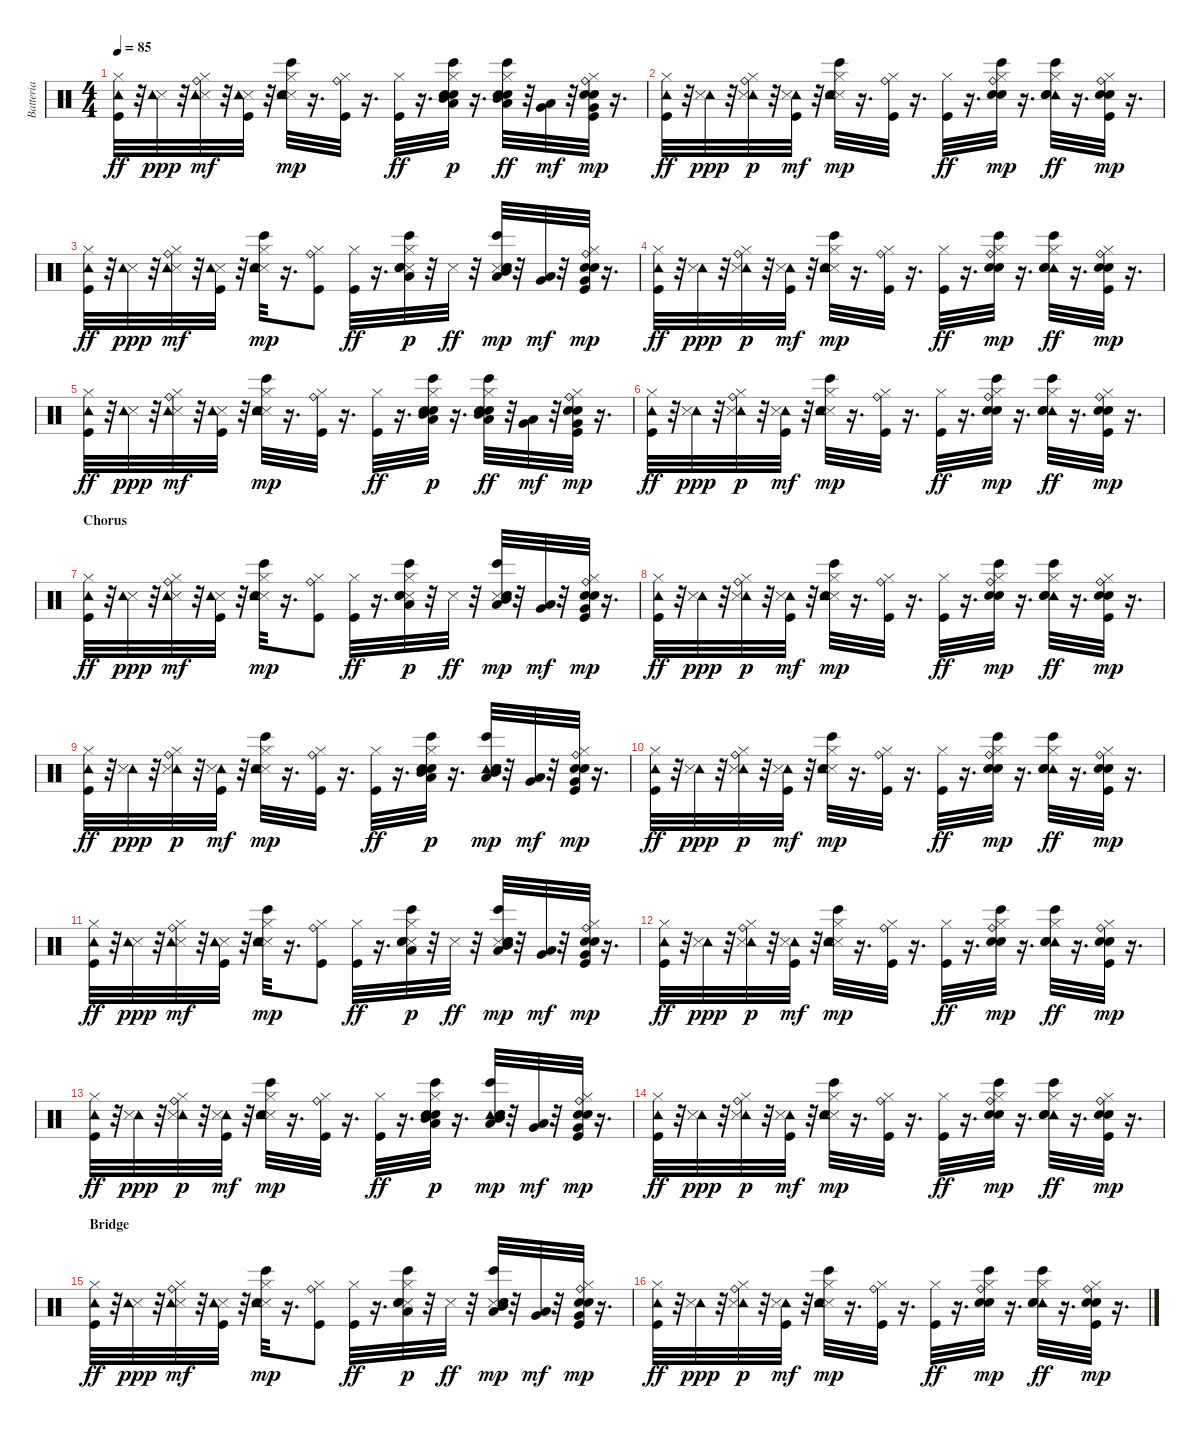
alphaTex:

\track ("Batteria" "Batteria") {instrument percussion}
\staff {score}
\articulation defaults
\ts (4 4)
\tempo 85
\clef neutral
\ks c
("Kick (hit)" "Hi-Hat (closed)" "Tambourine (hit)").32{dy ff} r.32 ("Metronome (hit)" "Tambourine (hit)").32{dy ppp} r.32 ("Metronome (hit)" "Hi-Hat (closed)" "Ride (bell)" "Tambourine (hit)").32{dy mf} r.32 ("Metronome (hit)" "Kick (hit)" "Tambourine (hit)").32 r.32 ("Bongo High (hit)" "Metronome (hit)" "Snare (hit) 2" "Hi-Hat (closed)" "Tambourine (hit)").32{dy mp} r.16{d} ("Kick (hit)" "Hi-Hat (closed)" "Ride (bell)").32 r.16{d} ("Kick (hit)" "Hi-Hat (closed)").32{dy ff} r.16{d} ("Low Tom (hit)" "Bongo High (hit)" "Snare (hit) 2" "Hand Clap (hit)" "Hi-Hat (closed)" "Mid Tom (hit)").32{dy p} r.16{d} ("Low Tom (hit)" "Mid Tom (hit)" "Bongo High (hit)" "Snare (hit) 2" "Hand Clap (hit)" "Hi-Hat (closed)").32{dy ff} r.32 ("Low Tom (hit)" "Very Low Tom (hit)").32{dy mf} r.32 ("Very Low Tom (hit)" "Kick (hit)" "Snare (hit) 2" "Hand Clap (hit)" "Hi-Hat (closed)" "Ride (bell)").32{dy mp} r.16{d} |
("Kick (hit)" "Hi-Hat (closed)" "Tambourine (hit)").32{dy ff} r.32 ("Tambourine (hit)" "Metronome (hit)").32{dy ppp} r.32 ("Tambourine (hit)" "Metronome (hit)" "Hi-Hat (closed)" "Ride (bell)").32{dy p} r.32 ("Tambourine (hit)" "Metronome (hit)" "Kick (hit)").32{dy mf} r.32 ("Bongo High (hit)" "Metronome (hit)" "Snare (hit) 2" "Hi-Hat (closed)" "Tambourine (hit)").32{dy mp} r.16{d} ("Kick (hit)" "Hi-Hat (closed)" "Ride (bell)").32 r.16{d} ("Kick (hit)" "Hi-Hat (closed)").32{dy ff} r.16{d} ("Bongo High (hit)" "Snare (hit) 2" "Hand Clap (hit)" "Hi-Hat (closed)" "Ride (bell)").32{dy mp} r.16{d} ("Tambourine (hit)" "Bongo High (hit)" "Snare (hit) 2" "Hand Clap (hit)" "Hi-Hat (closed)").32{dy ff} r.16{d} ("Kick (hit)" "Snare (hit) 2" "Hand Clap (hit)" "Hi-Hat (closed)" "Ride (bell)").32{dy mp} r.16{d} |
("Kick (hit)" "Hi-Hat (closed)" "Tambourine (hit)").32{dy ff} r.32 ("Metronome (hit)" "Tambourine (hit)").32{dy ppp} r.32 ("Metronome (hit)" "Hi-Hat (closed)" "Ride (bell)" "Tambourine (hit)").32{dy mf} r.32 ("Metronome (hit)" "Kick (hit)" "Tambourine (hit)").32 r.32 ("Bongo High (hit)" "Metronome (hit)" "Snare (hit) 2" "Hi-Hat (closed)" "Tambourine (hit)").32{dy mp} r.16{d} ("Kick (hit)" "Hi-Hat (closed)" "Ride (bell)").8 ("Kick (hit)" "Hi-Hat (closed)").32{dy ff} r.16{d} ("Low Tom (hit)" "Bongo High (hit)" "Metronome (hit)" "Snare (hit) 2" "Hand Clap (hit)" "Hi-Hat (closed)").32{dy p} r.32 "Metronome (hit)".32{dy ff} r.32 ("Low Tom (hit)" "Mid Tom (hit)" "Bongo High (hit)" "Metronome (hit)" "Snare (hit) 2" "Hand Clap (hit)").32{dy mp} r.32 ("Low Tom (hit)" "Very Low Tom (hit)").32{dy mf} r.32 ("Very Low Tom (hit)" "Kick (hit)" "Snare (hit) 2" "Hand Clap (hit)" "Hi-Hat (closed)" "Ride (bell)").32{dy mp} r.16{d} |
("Kick (hit)" "Hi-Hat (closed)" "Tambourine (hit)").32{dy ff} r.32 ("Tambourine (hit)" "Metronome (hit)").32{dy ppp} r.32 ("Tambourine (hit)" "Metronome (hit)" "Hi-Hat (closed)" "Ride (bell)").32{dy p} r.32 ("Tambourine (hit)" "Metronome (hit)" "Kick (hit)").32{dy mf} r.32 ("Bongo High (hit)" "Metronome (hit)" "Snare (hit) 2" "Hi-Hat (closed)" "Tambourine (hit)").32{dy mp} r.16{d} ("Kick (hit)" "Hi-Hat (closed)" "Ride (bell)").32 r.16{d} ("Kick (hit)" "Hi-Hat (closed)").32{dy ff} r.16{d} ("Bongo High (hit)" "Snare (hit) 2" "Hand Clap (hit)" "Hi-Hat (closed)" "Ride (bell)").32{dy mp} r.16{d} ("Tambourine (hit)" "Bongo High (hit)" "Snare (hit) 2" "Hand Clap (hit)" "Hi-Hat (closed)").32{dy ff} r.16{d} ("Kick (hit)" "Snare (hit) 2" "Hand Clap (hit)" "Hi-Hat (closed)" "Ride (bell)").32{dy mp} r.16{d} |
("Kick (hit)" "Hi-Hat (closed)" "Tambourine (hit)").32{dy ff} r.32 ("Metronome (hit)" "Tambourine (hit)").32{dy ppp} r.32 ("Metronome (hit)" "Hi-Hat (closed)" "Ride (bell)" "Tambourine (hit)").32{dy mf} r.32 ("Metronome (hit)" "Kick (hit)" "Tambourine (hit)").32 r.32 ("Bongo High (hit)" "Metronome (hit)" "Snare (hit) 2" "Hi-Hat (closed)" "Tambourine (hit)").32{dy mp} r.16{d} ("Kick (hit)" "Hi-Hat (closed)" "Ride (bell)").32 r.16{d} ("Kick (hit)" "Hi-Hat (closed)").32{dy ff} r.16{d} ("Low Tom (hit)" "Bongo High (hit)" "Snare (hit) 2" "Hand Clap (hit)" "Hi-Hat (closed)" "Mid Tom (hit)").32{dy p} r.16{d} ("Low Tom (hit)" "Mid Tom (hit)" "Bongo High (hit)" "Snare (hit) 2" "Hand Clap (hit)" "Hi-Hat (closed)").32{dy ff} r.32 ("Low Tom (hit)" "Very Low Tom (hit)").32{dy mf} r.32 ("Very Low Tom (hit)" "Kick (hit)" "Snare (hit) 2" "Hand Clap (hit)" "Hi-Hat (closed)" "Ride (bell)").32{dy mp} r.16{d} |
("Kick (hit)" "Hi-Hat (closed)" "Tambourine (hit)").32{dy ff} r.32 ("Tambourine (hit)" "Metronome (hit)").32{dy ppp} r.32 ("Tambourine (hit)" "Metronome (hit)" "Hi-Hat (closed)" "Ride (bell)").32{dy p} r.32 ("Tambourine (hit)" "Metronome (hit)" "Kick (hit)").32{dy mf} r.32 ("Bongo High (hit)" "Metronome (hit)" "Snare (hit) 2" "Hi-Hat (closed)" "Tambourine (hit)").32{dy mp} r.16{d} ("Kick (hit)" "Hi-Hat (closed)" "Ride (bell)").32 r.16{d} ("Kick (hit)" "Hi-Hat (closed)").32{dy ff} r.16{d} ("Bongo High (hit)" "Snare (hit) 2" "Hand Clap (hit)" "Hi-Hat (closed)" "Ride (bell)").32{dy mp} r.16{d} ("Tambourine (hit)" "Bongo High (hit)" "Snare (hit) 2" "Hand Clap (hit)" "Hi-Hat (closed)").32{dy ff} r.16{d} ("Kick (hit)" "Snare (hit) 2" "Hand Clap (hit)" "Hi-Hat (closed)" "Ride (bell)").32{dy mp} r.16{d} |
\section ("" "Chorus")
("Kick (hit)" "Hi-Hat (closed)" "Tambourine (hit)").32{dy ff} r.32 ("Metronome (hit)" "Tambourine (hit)").32{dy ppp} r.32 ("Metronome (hit)" "Hi-Hat (closed)" "Ride (bell)" "Tambourine (hit)").32{dy mf} r.32 ("Metronome (hit)" "Kick (hit)" "Tambourine (hit)").32 r.32 ("Bongo High (hit)" "Metronome (hit)" "Snare (hit) 2" "Hi-Hat (closed)" "Tambourine (hit)").32{dy mp} r.16{d} ("Kick (hit)" "Hi-Hat (closed)" "Ride (bell)").8 ("Kick (hit)" "Hi-Hat (closed)").32{dy ff} r.16{d} ("Low Tom (hit)" "Bongo High (hit)" "Metronome (hit)" "Snare (hit) 2" "Hand Clap (hit)" "Hi-Hat (closed)").32{dy p} r.32 "Metronome (hit)".32{dy ff} r.32 ("Low Tom (hit)" "Mid Tom (hit)" "Bongo High (hit)" "Metronome (hit)" "Snare (hit) 2" "Hand Clap (hit)").32{dy mp} r.32 ("Low Tom (hit)" "Very Low Tom (hit)").32{dy mf} r.32 ("Very Low Tom (hit)" "Kick (hit)" "Snare (hit) 2" "Hand Clap (hit)" "Hi-Hat (closed)" "Ride (bell)").32{dy mp} r.16{d} |
("Kick (hit)" "Hi-Hat (closed)" "Tambourine (hit)").32{dy ff} r.32 ("Tambourine (hit)" "Metronome (hit)").32{dy ppp} r.32 ("Tambourine (hit)" "Metronome (hit)" "Hi-Hat (closed)" "Ride (bell)").32{dy p} r.32 ("Tambourine (hit)" "Metronome (hit)" "Kick (hit)").32{dy mf} r.32 ("Bongo High (hit)" "Metronome (hit)" "Snare (hit) 2" "Hi-Hat (closed)" "Tambourine (hit)").32{dy mp} r.16{d} ("Kick (hit)" "Hi-Hat (closed)" "Ride (bell)").32 r.16{d} ("Kick (hit)" "Hi-Hat (closed)").32{dy ff} r.16{d} ("Bongo High (hit)" "Snare (hit) 2" "Hand Clap (hit)" "Hi-Hat (closed)" "Ride (bell)").32{dy mp} r.16{d} ("Tambourine (hit)" "Bongo High (hit)" "Snare (hit) 2" "Hand Clap (hit)" "Hi-Hat (closed)").32{dy ff} r.16{d} ("Kick (hit)" "Snare (hit) 2" "Hand Clap (hit)" "Hi-Hat (closed)" "Ride (bell)").32{dy mp} r.16{d} |
("Kick (hit)" "Hi-Hat (closed)" "Tambourine (hit)").32{dy ff} r.32 ("Tambourine (hit)" "Metronome (hit)").32{dy ppp} r.32 ("Tambourine (hit)" "Metronome (hit)" "Hi-Hat (closed)" "Ride (bell)").32{dy p} r.32 ("Tambourine (hit)" "Metronome (hit)" "Kick (hit)").32{dy mf} r.32 ("Bongo High (hit)" "Metronome (hit)" "Snare (hit) 2" "Hi-Hat (closed)" "Tambourine (hit)").32{dy mp} r.16{d} ("Kick (hit)" "Hi-Hat (closed)" "Ride (bell)").32 r.16{d} ("Kick (hit)" "Hi-Hat (closed)").32{dy ff} r.16{d} ("Low Tom (hit)" "Bongo High (hit)" "Snare (hit) 2" "Hand Clap (hit)" "Hi-Hat (closed)" "Mid Tom (hit)").32{dy p} r.16{d} ("Tambourine (hit)" "Low Tom (hit)" "Mid Tom (hit)" "Bongo High (hit)" "Snare (hit) 2" "Hand Clap (hit)").32{dy mp} r.32 ("Low Tom (hit)" "Very Low Tom (hit)").32{dy mf} r.32 ("Very Low Tom (hit)" "Kick (hit)" "Snare (hit) 2" "Hand Clap (hit)" "Hi-Hat (closed)" "Ride (bell)").32{dy mp} r.16{d} |
("Kick (hit)" "Hi-Hat (closed)" "Tambourine (hit)").32{dy ff} r.32 ("Tambourine (hit)" "Metronome (hit)").32{dy ppp} r.32 ("Tambourine (hit)" "Metronome (hit)" "Hi-Hat (closed)" "Ride (bell)").32{dy p} r.32 ("Tambourine (hit)" "Metronome (hit)" "Kick (hit)").32{dy mf} r.32 ("Bongo High (hit)" "Metronome (hit)" "Snare (hit) 2" "Hi-Hat (closed)" "Tambourine (hit)").32{dy mp} r.16{d} ("Kick (hit)" "Hi-Hat (closed)" "Ride (bell)").32 r.16{d} ("Kick (hit)" "Hi-Hat (closed)").32{dy ff} r.16{d} ("Bongo High (hit)" "Snare (hit) 2" "Hand Clap (hit)" "Hi-Hat (closed)" "Ride (bell)").32{dy mp} r.16{d} ("Tambourine (hit)" "Bongo High (hit)" "Snare (hit) 2" "Hand Clap (hit)" "Hi-Hat (closed)").32{dy ff} r.16{d} ("Kick (hit)" "Snare (hit) 2" "Hand Clap (hit)" "Hi-Hat (closed)" "Ride (bell)").32{dy mp} r.16{d} |
("Kick (hit)" "Hi-Hat (closed)" "Tambourine (hit)").32{dy ff} r.32 ("Metronome (hit)" "Tambourine (hit)").32{dy ppp} r.32 ("Metronome (hit)" "Hi-Hat (closed)" "Ride (bell)" "Tambourine (hit)").32{dy mf} r.32 ("Metronome (hit)" "Kick (hit)" "Tambourine (hit)").32 r.32 ("Bongo High (hit)" "Metronome (hit)" "Snare (hit) 2" "Hi-Hat (closed)" "Tambourine (hit)").32{dy mp} r.16{d} ("Kick (hit)" "Hi-Hat (closed)" "Ride (bell)").8 ("Kick (hit)" "Hi-Hat (closed)").32{dy ff} r.16{d} ("Low Tom (hit)" "Bongo High (hit)" "Metronome (hit)" "Snare (hit) 2" "Hand Clap (hit)" "Hi-Hat (closed)").32{dy p} r.32 "Metronome (hit)".32{dy ff} r.32 ("Low Tom (hit)" "Mid Tom (hit)" "Bongo High (hit)" "Metronome (hit)" "Snare (hit) 2" "Hand Clap (hit)").32{dy mp} r.32 ("Low Tom (hit)" "Very Low Tom (hit)").32{dy mf} r.32 ("Very Low Tom (hit)" "Kick (hit)" "Snare (hit) 2" "Hand Clap (hit)" "Hi-Hat (closed)" "Ride (bell)").32{dy mp} r.16{d} |
("Kick (hit)" "Hi-Hat (closed)" "Tambourine (hit)").32{dy ff} r.32 ("Tambourine (hit)" "Metronome (hit)").32{dy ppp} r.32 ("Tambourine (hit)" "Metronome (hit)" "Hi-Hat (closed)" "Ride (bell)").32{dy p} r.32 ("Tambourine (hit)" "Metronome (hit)" "Kick (hit)").32{dy mf} r.32 ("Bongo High (hit)" "Metronome (hit)" "Snare (hit) 2" "Hi-Hat (closed)" "Tambourine (hit)").32{dy mp} r.16{d} ("Kick (hit)" "Hi-Hat (closed)" "Ride (bell)").32 r.16{d} ("Kick (hit)" "Hi-Hat (closed)").32{dy ff} r.16{d} ("Bongo High (hit)" "Snare (hit) 2" "Hand Clap (hit)" "Hi-Hat (closed)" "Ride (bell)").32{dy mp} r.16{d} ("Tambourine (hit)" "Bongo High (hit)" "Snare (hit) 2" "Hand Clap (hit)" "Hi-Hat (closed)").32{dy ff} r.16{d} ("Kick (hit)" "Snare (hit) 2" "Hand Clap (hit)" "Hi-Hat (closed)" "Ride (bell)").32{dy mp} r.16{d} |
("Kick (hit)" "Hi-Hat (closed)" "Tambourine (hit)").32{dy ff} r.32 ("Tambourine (hit)" "Metronome (hit)").32{dy ppp} r.32 ("Tambourine (hit)" "Metronome (hit)" "Hi-Hat (closed)" "Ride (bell)").32{dy p} r.32 ("Tambourine (hit)" "Metronome (hit)" "Kick (hit)").32{dy mf} r.32 ("Bongo High (hit)" "Metronome (hit)" "Snare (hit) 2" "Hi-Hat (closed)" "Tambourine (hit)").32{dy mp} r.16{d} ("Kick (hit)" "Hi-Hat (closed)" "Ride (bell)").32 r.16{d} ("Kick (hit)" "Hi-Hat (closed)").32{dy ff} r.16{d} ("Low Tom (hit)" "Bongo High (hit)" "Snare (hit) 2" "Hand Clap (hit)" "Hi-Hat (closed)" "Mid Tom (hit)").32{dy p} r.16{d} ("Tambourine (hit)" "Low Tom (hit)" "Mid Tom (hit)" "Bongo High (hit)" "Snare (hit) 2" "Hand Clap (hit)").32{dy mp} r.32 ("Low Tom (hit)" "Very Low Tom (hit)").32{dy mf} r.32 ("Very Low Tom (hit)" "Kick (hit)" "Snare (hit) 2" "Hand Clap (hit)" "Hi-Hat (closed)" "Ride (bell)").32{dy mp} r.16{d} |
("Kick (hit)" "Hi-Hat (closed)" "Tambourine (hit)").32{dy ff} r.32 ("Tambourine (hit)" "Metronome (hit)").32{dy ppp} r.32 ("Tambourine (hit)" "Metronome (hit)" "Hi-Hat (closed)" "Ride (bell)").32{dy p} r.32 ("Tambourine (hit)" "Metronome (hit)" "Kick (hit)").32{dy mf} r.32 ("Bongo High (hit)" "Metronome (hit)" "Snare (hit) 2" "Hi-Hat (closed)" "Tambourine (hit)").32{dy mp} r.16{d} ("Kick (hit)" "Hi-Hat (closed)" "Ride (bell)").32 r.16{d} ("Kick (hit)" "Hi-Hat (closed)").32{dy ff} r.16{d} ("Bongo High (hit)" "Snare (hit) 2" "Hand Clap (hit)" "Hi-Hat (closed)" "Ride (bell)").32{dy mp} r.16{d} ("Tambourine (hit)" "Bongo High (hit)" "Snare (hit) 2" "Hand Clap (hit)" "Hi-Hat (closed)").32{dy ff} r.16{d} ("Kick (hit)" "Snare (hit) 2" "Hand Clap (hit)" "Hi-Hat (closed)" "Ride (bell)").32{dy mp} r.16{d} |
\section ("" "Bridge")
("Kick (hit)" "Hi-Hat (closed)" "Tambourine (hit)").32{dy ff} r.32 ("Metronome (hit)" "Tambourine (hit)").32{dy ppp} r.32 ("Metronome (hit)" "Hi-Hat (closed)" "Ride (bell)" "Tambourine (hit)").32{dy mf} r.32 ("Metronome (hit)" "Kick (hit)" "Tambourine (hit)").32 r.32 ("Bongo High (hit)" "Metronome (hit)" "Snare (hit) 2" "Hi-Hat (closed)" "Tambourine (hit)").32{dy mp} r.16{d} ("Kick (hit)" "Hi-Hat (closed)" "Ride (bell)").8 ("Kick (hit)" "Hi-Hat (closed)").32{dy ff} r.16{d} ("Low Tom (hit)" "Bongo High (hit)" "Metronome (hit)" "Snare (hit) 2" "Hand Clap (hit)" "Hi-Hat (closed)").32{dy p} r.32 "Metronome (hit)".32{dy ff} r.32 ("Low Tom (hit)" "Mid Tom (hit)" "Bongo High (hit)" "Metronome (hit)" "Snare (hit) 2" "Hand Clap (hit)").32{dy mp} r.32 ("Low Tom (hit)" "Very Low Tom (hit)").32{dy mf} r.32 ("Very Low Tom (hit)" "Kick (hit)" "Snare (hit) 2" "Hand Clap (hit)" "Hi-Hat (closed)" "Ride (bell)").32{dy mp} r.16{d} |
("Kick (hit)" "Hi-Hat (closed)" "Tambourine (hit)").32{dy ff} r.32 ("Tambourine (hit)" "Metronome (hit)").32{dy ppp} r.32 ("Tambourine (hit)" "Metronome (hit)" "Hi-Hat (closed)" "Ride (bell)").32{dy p} r.32 ("Tambourine (hit)" "Metronome (hit)" "Kick (hit)").32{dy mf} r.32 ("Bongo High (hit)" "Metronome (hit)" "Snare (hit) 2" "Hi-Hat (closed)" "Tambourine (hit)").32{dy mp} r.16{d} ("Kick (hit)" "Hi-Hat (closed)" "Ride (bell)").32 r.16{d} ("Kick (hit)" "Hi-Hat (closed)").32{dy ff} r.16{d} ("Bongo High (hit)" "Snare (hit) 2" "Hand Clap (hit)" "Hi-Hat (closed)" "Ride (bell)").32{dy mp} r.16{d} ("Tambourine (hit)" "Bongo High (hit)" "Snare (hit) 2" "Hand Clap (hit)" "Hi-Hat (closed)").32{dy ff} r.16{d} ("Kick (hit)" "Snare (hit) 2" "Hand Clap (hit)" "Hi-Hat (closed)" "Ride (bell)").32{dy mp} r.16{d}
